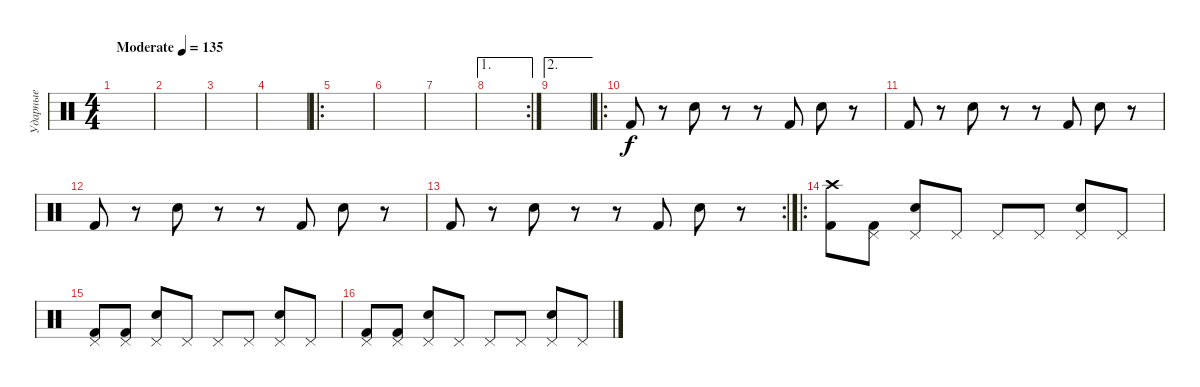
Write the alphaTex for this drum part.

\track ("Ударные" "Ударные") {instrument percussion}
\staff
\articulation defaults
\ts (4 4)
\tempo (135 "Moderate")
\clef neutral
\ks c
|
|
|
|
\ro
|
|
|
\ae 1
\rc 2
|
\ae 2
|
\ro "Kick (hit) 2".8
r.8 "Electric Snare (hit)".8 r.8 r.8 "Kick (hit) 2".8 "Electric Snare (hit)".8 r.8 |
"Kick (hit) 2".8 r.8 "Electric Snare (hit)".8 r.8 r.8 "Kick (hit) 2".8 "Electric Snare (hit)".8 r.8 |
"Kick (hit) 2".8 r.8 "Electric Snare (hit)".8 r.8 r.8 "Kick (hit) 2".8 "Electric Snare (hit)".8 r.8 |
\rc 2 "Kick (hit) 2".8
r.8 "Electric Snare (hit)".8 r.8 r.8 "Kick (hit) 2".8 "Electric Snare (hit)".8 r.8 |
\ro
("Crash high (hit)" "Kick (hit) 2").8 ("Pedal Hi-Hat (hit)" "Kick (hit) 2").8 ("Pedal Hi-Hat (hit)" "Electric Snare (hit)").8 "Pedal Hi-Hat (hit)".8 "Pedal Hi-Hat (hit)".8 "Pedal Hi-Hat (hit)".8 ("Pedal Hi-Hat (hit)" "Electric Snare (hit)").8 "Pedal Hi-Hat (hit)".8 |
("Pedal Hi-Hat (hit)" "Kick (hit) 2").8 ("Pedal Hi-Hat (hit)" "Kick (hit) 2").8 ("Pedal Hi-Hat (hit)" "Electric Snare (hit)").8 "Pedal Hi-Hat (hit)".8 "Pedal Hi-Hat (hit)".8 "Pedal Hi-Hat (hit)".8 ("Pedal Hi-Hat (hit)" "Electric Snare (hit)").8 "Pedal Hi-Hat (hit)".8 |
("Pedal Hi-Hat (hit)" "Kick (hit) 2").8 ("Pedal Hi-Hat (hit)" "Kick (hit) 2").8 ("Pedal Hi-Hat (hit)" "Electric Snare (hit)").8 "Pedal Hi-Hat (hit)".8 "Pedal Hi-Hat (hit)".8 "Pedal Hi-Hat (hit)".8 ("Pedal Hi-Hat (hit)" "Electric Snare (hit)").8 "Pedal Hi-Hat (hit)".8
